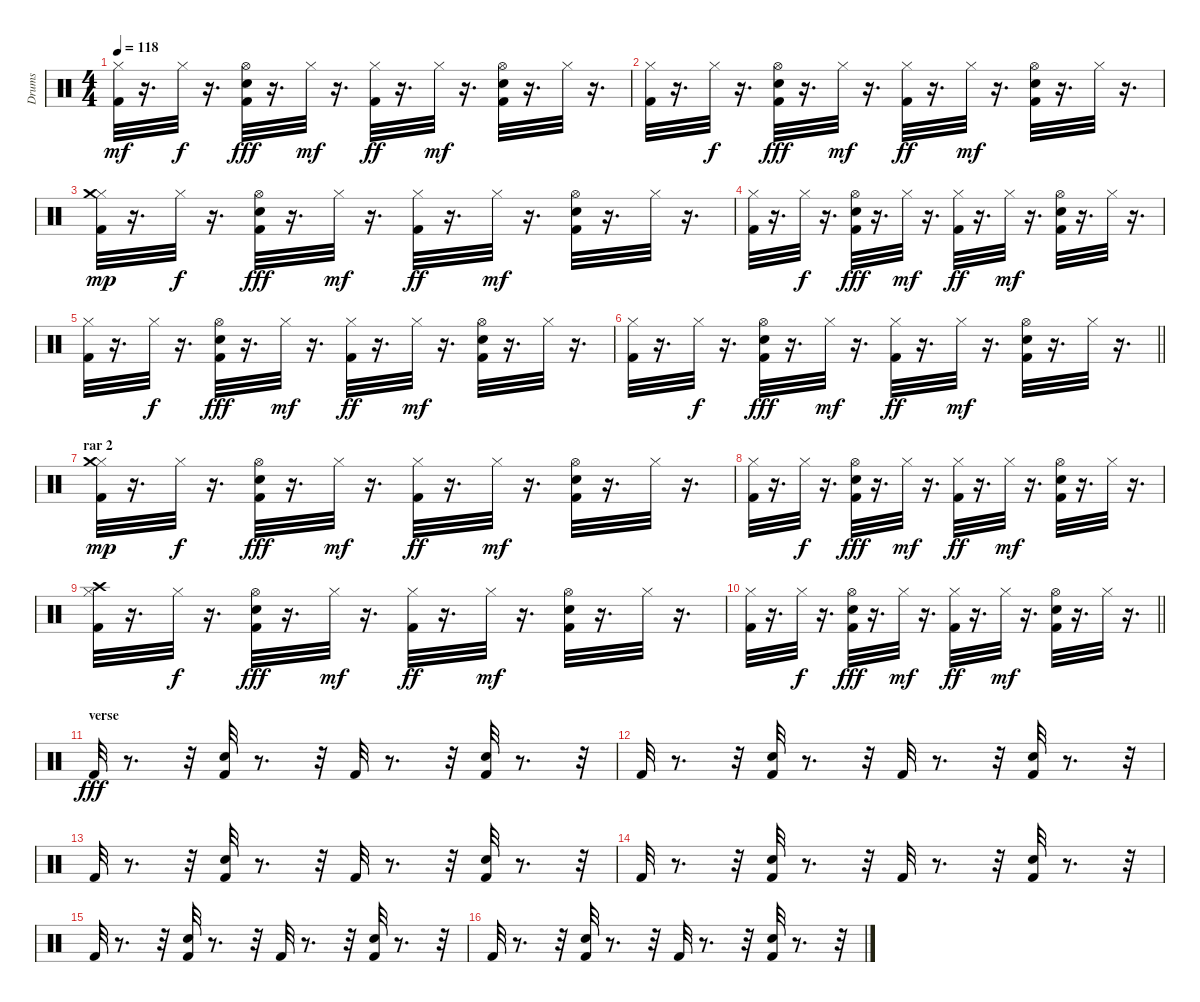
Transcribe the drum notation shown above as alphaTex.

\track ("Drums" "Drums") {instrument percussion}
\staff {score}
\articulation defaults
\ts (4 4)
\tempo 118
\clef neutral
\ks c
("Kick (hit) 2" "Hi-Hat (closed)").32{dy mf} r.16{d} "Hi-Hat (closed)".32{dy f} r.16{d} ("Kick (hit) 2" "Electric Snare (hit)" "Hi-Hat (open)").32{dy fff} r.16{d} "Hi-Hat (closed)".32{dy mf} r.16{d} ("Kick (hit) 2" "Hi-Hat (closed)").32{dy ff} r.16{d} "Hi-Hat (closed)".32{dy mf} r.16{d} ("Kick (hit) 2" "Electric Snare (hit)" "Hi-Hat (open)").32 r.16{d} "Hi-Hat (closed)".32 r.16{d} |
("Kick (hit) 2" "Hi-Hat (closed)").32 r.16{d} "Hi-Hat (closed)".32{dy f} r.16{d} ("Kick (hit) 2" "Electric Snare (hit)" "Hi-Hat (open)").32{dy fff} r.16{d} "Hi-Hat (closed)".32{dy mf} r.16{d} ("Kick (hit) 2" "Hi-Hat (closed)").32{dy ff} r.16{d} "Hi-Hat (closed)".32{dy mf} r.16{d} ("Kick (hit) 2" "Electric Snare (hit)" "Hi-Hat (open)").32 r.16{d} "Hi-Hat (closed)".32 r.16{d} |
("Kick (hit) 2" "Hi-Hat (closed)" "Crash medium (hit)").32{dy mp} r.16{d} "Hi-Hat (closed)".32{dy f} r.16{d} ("Kick (hit) 2" "Electric Snare (hit)" "Hi-Hat (open)").32{dy fff} r.16{d} "Hi-Hat (closed)".32{dy mf} r.16{d} ("Kick (hit) 2" "Hi-Hat (closed)").32{dy ff} r.16{d} "Hi-Hat (closed)".32{dy mf} r.16{d} ("Kick (hit) 2" "Electric Snare (hit)" "Hi-Hat (open)").32 r.16{d} "Hi-Hat (closed)".32 r.16{d} |
("Kick (hit) 2" "Hi-Hat (closed)").32 r.16{d} "Hi-Hat (closed)".32{dy f} r.16{d} ("Kick (hit) 2" "Electric Snare (hit)" "Hi-Hat (open)").32{dy fff} r.16{d} "Hi-Hat (closed)".32{dy mf} r.16{d} ("Kick (hit) 2" "Hi-Hat (closed)").32{dy ff} r.16{d} "Hi-Hat (closed)".32{dy mf} r.16{d} ("Kick (hit) 2" "Electric Snare (hit)" "Hi-Hat (open)").32 r.16{d} "Hi-Hat (closed)".32 r.16{d} |
("Kick (hit) 2" "Hi-Hat (closed)").32 r.16{d} "Hi-Hat (closed)".32{dy f} r.16{d} ("Kick (hit) 2" "Electric Snare (hit)" "Hi-Hat (open)").32{dy fff} r.16{d} "Hi-Hat (closed)".32{dy mf} r.16{d} ("Kick (hit) 2" "Hi-Hat (closed)").32{dy ff} r.16{d} "Hi-Hat (closed)".32{dy mf} r.16{d} ("Kick (hit) 2" "Electric Snare (hit)" "Hi-Hat (open)").32 r.16{d} "Hi-Hat (closed)".32 r.16{d} |
\barLineRight lightlight
("Kick (hit) 2" "Hi-Hat (closed)").32 r.16{d} "Hi-Hat (closed)".32{dy f} r.16{d} ("Kick (hit) 2" "Electric Snare (hit)" "Hi-Hat (open)").32{dy fff} r.16{d} "Hi-Hat (closed)".32{dy mf} r.16{d} ("Kick (hit) 2" "Hi-Hat (closed)").32{dy ff} r.16{d} "Hi-Hat (closed)".32{dy mf} r.16{d} ("Kick (hit) 2" "Electric Snare (hit)" "Hi-Hat (open)").32 r.16{d} "Hi-Hat (closed)".32 r.16{d} |
\section ("" "rar 2")
("Kick (hit) 2" "Hi-Hat (closed)" "Crash medium (hit)").32{dy mp} r.16{d} "Hi-Hat (closed)".32{dy f} r.16{d} ("Kick (hit) 2" "Electric Snare (hit)" "Hi-Hat (open)").32{dy fff} r.16{d} "Hi-Hat (closed)".32{dy mf} r.16{d} ("Kick (hit) 2" "Hi-Hat (closed)").32{dy ff} r.16{d} "Hi-Hat (closed)".32{dy mf} r.16{d} ("Kick (hit) 2" "Electric Snare (hit)" "Hi-Hat (open)").32 r.16{d} "Hi-Hat (closed)".32 r.16{d} |
("Kick (hit) 2" "Hi-Hat (closed)").32 r.16{d} "Hi-Hat (closed)".32{dy f} r.16{d} ("Kick (hit) 2" "Electric Snare (hit)" "Hi-Hat (open)").32{dy fff} r.16{d} "Hi-Hat (closed)".32{dy mf} r.16{d} ("Kick (hit) 2" "Hi-Hat (closed)").32{dy ff} r.16{d} "Hi-Hat (closed)".32{dy mf} r.16{d} ("Kick (hit) 2" "Electric Snare (hit)" "Hi-Hat (open)").32 r.16{d} "Hi-Hat (closed)".32 r.16{d} |
("Kick (hit) 2" "Hi-Hat (closed)" "Crash high (hit)").32 r.16{d} "Hi-Hat (closed)".32{dy f} r.16{d} ("Kick (hit) 2" "Electric Snare (hit)" "Hi-Hat (open)").32{dy fff} r.16{d} "Hi-Hat (closed)".32{dy mf} r.16{d} ("Kick (hit) 2" "Hi-Hat (closed)").32{dy ff} r.16{d} "Hi-Hat (closed)".32{dy mf} r.16{d} ("Kick (hit) 2" "Electric Snare (hit)" "Hi-Hat (open)").32 r.16{d} "Hi-Hat (closed)".32 r.16{d} |
\barLineRight lightlight
("Kick (hit) 2" "Hi-Hat (closed)").32 r.16{d} "Hi-Hat (closed)".32{dy f} r.16{d} ("Kick (hit) 2" "Electric Snare (hit)" "Hi-Hat (open)").32{dy fff} r.16{d} "Hi-Hat (closed)".32{dy mf} r.16{d} ("Kick (hit) 2" "Hi-Hat (closed)").32{dy ff} r.16{d} "Hi-Hat (closed)".32{dy mf} r.16{d} ("Kick (hit) 2" "Electric Snare (hit)" "Hi-Hat (open)").32 r.16{d} "Hi-Hat (closed)".32 r.16{d} |
\section ("" "verse")
"Kick (hit) 2".32{dy fff} r.8{d} r.32 ("Kick (hit) 2" "Electric Snare (hit)").32 r.8{d} r.32 "Kick (hit) 2".32 r.8{d} r.32 ("Kick (hit) 2" "Electric Snare (hit)").32 r.8{d} r.32 |
"Kick (hit) 2".32 r.8{d} r.32 ("Kick (hit) 2" "Electric Snare (hit)").32 r.8{d} r.32 "Kick (hit) 2".32 r.8{d} r.32 ("Kick (hit) 2" "Electric Snare (hit)").32 r.8{d} r.32 |
"Kick (hit) 2".32 r.8{d} r.32 ("Kick (hit) 2" "Electric Snare (hit)").32 r.8{d} r.32 "Kick (hit) 2".32 r.8{d} r.32 ("Kick (hit) 2" "Electric Snare (hit)").32 r.8{d} r.32 |
"Kick (hit) 2".32 r.8{d} r.32 ("Kick (hit) 2" "Electric Snare (hit)").32 r.8{d} r.32 "Kick (hit) 2".32 r.8{d} r.32 ("Kick (hit) 2" "Electric Snare (hit)").32 r.8{d} r.32 |
"Kick (hit) 2".32 r.8{d} r.32 ("Kick (hit) 2" "Electric Snare (hit)").32 r.8{d} r.32 "Kick (hit) 2".32 r.8{d} r.32 ("Kick (hit) 2" "Electric Snare (hit)").32 r.8{d} r.32 |
"Kick (hit) 2".32 r.8{d} r.32 ("Kick (hit) 2" "Electric Snare (hit)").32 r.8{d} r.32 "Kick (hit) 2".32 r.8{d} r.32 ("Kick (hit) 2" "Electric Snare (hit)").32 r.8{d} r.32
